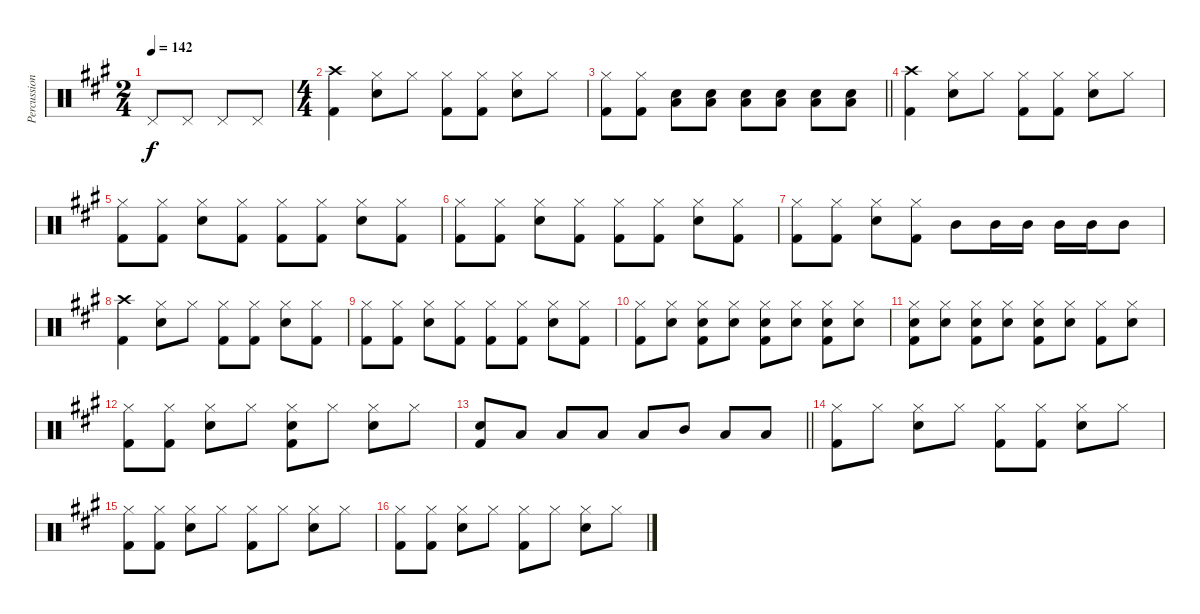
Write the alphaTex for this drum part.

\track ("Percussion" "Percussion") {instrument percussion}
\staff {score}
\articulation defaults
\ts (2 4)
\tempo 142
\clef neutral
\ks a "Pedal Hi-Hat (hit)".8{dy f} "Pedal Hi-Hat (hit)".8 "Pedal Hi-Hat (hit)".8 "Pedal Hi-Hat (hit)".8
|
\ts (4 4)
("Crash high (hit)" "Kick (hit) 2").4 ("Hi-Hat (closed)" "Snare (hit) 2").8 "Hi-Hat (closed)".8 ("Hi-Hat (closed)" "Kick (hit) 2").8 ("Hi-Hat (closed)" "Kick (hit) 2").8 ("Hi-Hat (closed)" "Snare (hit) 2").8 "Hi-Hat (closed)".8 |
\barLineRight lightlight
("Hi-Hat (closed)" "Kick (hit) 2").8 ("Hi-Hat (closed)" "Kick (hit) 2").8 ("Snare (hit) 2" "Low Floor Tom (hit)").8 ("Snare (hit) 2" "Low Floor Tom (hit)").8 ("Snare (hit) 2" "Low Floor Tom (hit)").8 ("Snare (hit) 2" "Low Floor Tom (hit)").8 ("Snare (hit) 2" "Low Floor Tom (hit)").8 ("Snare (hit) 2" "Low Floor Tom (hit)").8 |
("Crash high (hit)" "Kick (hit) 2").4 ("Hi-Hat (closed)" "Snare (hit) 2").8 "Hi-Hat (closed)".8 ("Hi-Hat (closed)" "Kick (hit) 2").8 ("Hi-Hat (closed)" "Kick (hit) 2").8 ("Hi-Hat (closed)" "Snare (hit) 2").8 "Hi-Hat (closed)".8 |
("Hi-Hat (closed)" "Kick (hit) 2").8 ("Hi-Hat (closed)" "Kick (hit) 2").8 ("Hi-Hat (closed)" "Snare (hit) 2").8 ("Hi-Hat (closed)" "Kick (hit) 2").8 ("Hi-Hat (closed)" "Kick (hit) 2").8 ("Hi-Hat (closed)" "Kick (hit) 2").8 ("Hi-Hat (closed)" "Snare (hit) 2").8 ("Hi-Hat (closed)" "Kick (hit) 2").8 |
("Hi-Hat (closed)" "Kick (hit) 2").8 ("Hi-Hat (closed)" "Kick (hit) 2").8 ("Hi-Hat (closed)" "Snare (hit) 2").8 ("Hi-Hat (closed)" "Kick (hit) 2").8 ("Hi-Hat (closed)" "Kick (hit) 2").8 ("Hi-Hat (closed)" "Kick (hit) 2").8 ("Hi-Hat (closed)" "Snare (hit) 2").8 ("Hi-Hat (closed)" "Kick (hit) 2").8 |
("Hi-Hat (closed)" "Kick (hit) 2").8 ("Hi-Hat (closed)" "Kick (hit) 2").8 ("Hi-Hat (closed)" "Snare (hit) 2").8 ("Hi-Hat (closed)" "Kick (hit) 2").8 "Mid Tom (hit)".8 "Mid Tom (hit)".16 "Mid Tom (hit)".16 "Mid Tom (hit)".16 "Mid Tom (hit)".16 "Mid Tom (hit)".8 |
("Crash high (hit)" "Kick (hit) 2").4 ("Hi-Hat (closed)" "Snare (hit) 2").8 "Hi-Hat (closed)".8 ("Hi-Hat (closed)" "Kick (hit) 2").8 ("Hi-Hat (closed)" "Kick (hit) 2").8 ("Hi-Hat (closed)" "Snare (hit) 2").8 ("Hi-Hat (closed)" "Kick (hit) 2").8 |
("Hi-Hat (closed)" "Kick (hit) 2").8 ("Hi-Hat (closed)" "Kick (hit) 2").8 ("Hi-Hat (closed)" "Snare (hit) 2").8 ("Hi-Hat (closed)" "Kick (hit) 2").8 ("Hi-Hat (closed)" "Kick (hit) 2").8 ("Hi-Hat (closed)" "Kick (hit) 2").8 ("Hi-Hat (closed)" "Snare (hit) 2").8 ("Hi-Hat (closed)" "Kick (hit) 2").8 |
("Hi-Hat (closed)" "Kick (hit) 2").8 ("Snare (hit) 2" "Hi-Hat (closed)").8 ("Snare (hit) 2" "Hi-Hat (closed)" "Kick (hit) 2").8 ("Snare (hit) 2" "Hi-Hat (closed)").8 ("Snare (hit) 2" "Hi-Hat (closed)" "Kick (hit) 2").8 ("Snare (hit) 2" "Hi-Hat (closed)").8 ("Snare (hit) 2" "Hi-Hat (closed)" "Kick (hit) 2").8 ("Snare (hit) 2" "Hi-Hat (closed)").8 |
("Snare (hit) 2" "Hi-Hat (closed)" "Kick (hit) 2").8 ("Snare (hit) 2" "Hi-Hat (closed)").8 ("Snare (hit) 2" "Hi-Hat (closed)" "Kick (hit) 2").8 ("Snare (hit) 2" "Hi-Hat (closed)").8 ("Snare (hit) 2" "Hi-Hat (closed)" "Kick (hit) 2").8 ("Snare (hit) 2" "Hi-Hat (closed)").8 ("Hi-Hat (closed)" "Kick (hit) 2").8 ("Snare (hit) 2" "Hi-Hat (closed)").8 |
("Hi-Hat (closed)" "Kick (hit) 2").8 ("Hi-Hat (closed)" "Kick (hit) 2").8 ("Hi-Hat (closed)" "Snare (hit) 2").8 "Hi-Hat (closed)".8 ("Hi-Hat (closed)" "Snare (hit) 2" "Kick (hit) 2").8 "Hi-Hat (closed)".8 ("Hi-Hat (closed)" "Snare (hit) 2").8 "Hi-Hat (closed)".8 |
\barLineRight lightlight
("Snare (hit) 2" "Kick (hit) 2").8 "Low Tom (hit)".8 "Low Tom (hit)".8 "Low Tom (hit)".8 "Low Tom (hit)".8 "Mid Tom (hit)".8 "Low Tom (hit)".8 "Low Floor Tom (hit)".8 |
("Hi-Hat (closed)" "Kick (hit) 2").8 "Hi-Hat (closed)".8 ("Hi-Hat (closed)" "Snare (hit) 2").8 "Hi-Hat (closed)".8 ("Hi-Hat (closed)" "Kick (hit) 2").8 ("Hi-Hat (closed)" "Kick (hit) 2").8 ("Hi-Hat (closed)" "Snare (hit) 2").8 "Hi-Hat (closed)".8 |
("Hi-Hat (closed)" "Kick (hit) 2").8 ("Hi-Hat (closed)" "Kick (hit) 2").8 ("Hi-Hat (closed)" "Snare (hit) 2").8 "Hi-Hat (closed)".8 ("Hi-Hat (closed)" "Kick (hit) 2").8 "Hi-Hat (closed)".8 ("Hi-Hat (closed)" "Snare (hit) 2").8 "Hi-Hat (closed)".8 |
("Hi-Hat (closed)" "Kick (hit) 2").8 ("Hi-Hat (closed)" "Kick (hit) 2").8 ("Hi-Hat (closed)" "Snare (hit) 2").8 "Hi-Hat (closed)".8 ("Hi-Hat (closed)" "Kick (hit) 2").8 "Hi-Hat (closed)".8 ("Hi-Hat (closed)" "Snare (hit) 2").8 "Hi-Hat (closed)".8
